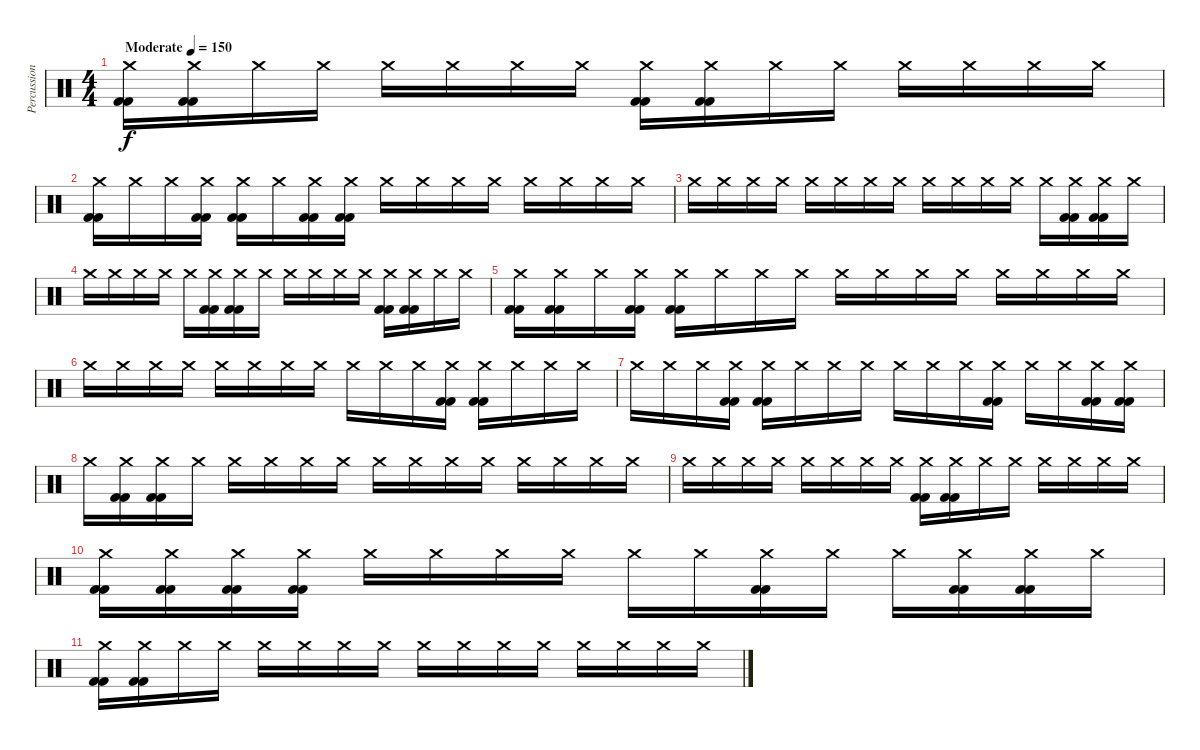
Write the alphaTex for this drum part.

\track ("Percussion" "Percussion") {instrument percussion}
\staff {score}
\articulation defaults
\ts (4 4)
\tempo (150 "Moderate")
\clef neutral
\ks c
("Crash medium (hit)" "Kick (hit) 2" "Kick (hit) 2").16{dy f} ("Crash medium (hit)" "Kick (hit) 2" "Kick (hit) 2").16 "Crash medium (hit)".16 "Crash medium (hit)".16 "Crash medium (hit)".16 "Crash medium (hit)".16 "Crash medium (hit)".16 "Crash medium (hit)".16 ("Crash medium (hit)" "Kick (hit) 2" "Kick (hit) 2").16 ("Crash medium (hit)" "Kick (hit) 2" "Kick (hit) 2").16 "Crash medium (hit)".16 "Crash medium (hit)".16 "Crash medium (hit)".16 "Crash medium (hit)".16 "Crash medium (hit)".16 "Crash medium (hit)".16 |
("Crash medium (hit)" "Kick (hit) 2" "Kick (hit) 2").16 "Crash medium (hit)".16 "Crash medium (hit)".16 ("Crash medium (hit)" "Kick (hit) 2" "Kick (hit) 2").16 ("Crash medium (hit)" "Kick (hit) 2" "Kick (hit) 2").16 "Crash medium (hit)".16 ("Crash medium (hit)" "Kick (hit) 2" "Kick (hit) 2").16 ("Crash medium (hit)" "Kick (hit) 2" "Kick (hit) 2").16 "Crash medium (hit)".16 "Crash medium (hit)".16 "Crash medium (hit)".16 "Crash medium (hit)".16 "Crash medium (hit)".16 "Crash medium (hit)".16 "Crash medium (hit)".16 "Crash medium (hit)".16 |
"Crash medium (hit)".16 "Crash medium (hit)".16 "Crash medium (hit)".16 "Crash medium (hit)".16 "Crash medium (hit)".16 "Crash medium (hit)".16 "Crash medium (hit)".16 "Crash medium (hit)".16 "Crash medium (hit)".16 "Crash medium (hit)".16 "Crash medium (hit)".16 "Crash medium (hit)".16 "Crash medium (hit)".16 ("Crash medium (hit)" "Kick (hit) 2" "Kick (hit) 2").16 ("Crash medium (hit)" "Kick (hit) 2" "Kick (hit) 2").16 "Crash medium (hit)".16 |
"Crash medium (hit)".16 "Crash medium (hit)".16 "Crash medium (hit)".16 "Crash medium (hit)".16 "Crash medium (hit)".16 ("Crash medium (hit)" "Kick (hit) 2" "Kick (hit) 2").16 ("Crash medium (hit)" "Kick (hit) 2" "Kick (hit) 2").16 "Crash medium (hit)".16 "Crash medium (hit)".16 "Crash medium (hit)".16 "Crash medium (hit)".16 "Crash medium (hit)".16 ("Crash medium (hit)" "Kick (hit) 2" "Kick (hit) 2").16 ("Crash medium (hit)" "Kick (hit) 2" "Kick (hit) 2").16 "Crash medium (hit)".16 "Crash medium (hit)".16 |
("Crash medium (hit)" "Kick (hit) 2" "Kick (hit) 2").16 ("Crash medium (hit)" "Kick (hit) 2" "Kick (hit) 2").16 "Crash medium (hit)".16 ("Crash medium (hit)" "Kick (hit) 2" "Kick (hit) 2").16 ("Crash medium (hit)" "Kick (hit) 2" "Kick (hit) 2").16 "Crash medium (hit)".16 "Crash medium (hit)".16 "Crash medium (hit)".16 "Crash medium (hit)".16 "Crash medium (hit)".16 "Crash medium (hit)".16 "Crash medium (hit)".16 "Crash medium (hit)".16 "Crash medium (hit)".16 "Crash medium (hit)".16 "Crash medium (hit)".16 |
"Crash medium (hit)".16 "Crash medium (hit)".16 "Crash medium (hit)".16 "Crash medium (hit)".16 "Crash medium (hit)".16 "Crash medium (hit)".16 "Crash medium (hit)".16 "Crash medium (hit)".16 "Crash medium (hit)".16 "Crash medium (hit)".16 "Crash medium (hit)".16 ("Crash medium (hit)" "Kick (hit) 2" "Kick (hit) 2").16 ("Crash medium (hit)" "Kick (hit) 2" "Kick (hit) 2").16 "Crash medium (hit)".16 "Crash medium (hit)".16 "Crash medium (hit)".16 |
"Crash medium (hit)".16 "Crash medium (hit)".16 "Crash medium (hit)".16 ("Crash medium (hit)" "Kick (hit) 2" "Kick (hit) 2").16 ("Crash medium (hit)" "Kick (hit) 2" "Kick (hit) 2").16 "Crash medium (hit)".16 "Crash medium (hit)".16 "Crash medium (hit)".16 "Crash medium (hit)".16 "Crash medium (hit)".16 "Crash medium (hit)".16 ("Crash medium (hit)" "Kick (hit) 2" "Kick (hit) 2").16 "Crash medium (hit)".16 "Crash medium (hit)".16 ("Crash medium (hit)" "Kick (hit) 2" "Kick (hit) 2").16 ("Crash medium (hit)" "Kick (hit) 2" "Kick (hit) 2").16 |
"Crash medium (hit)".16 ("Crash medium (hit)" "Kick (hit) 2" "Kick (hit) 2").16 ("Crash medium (hit)" "Kick (hit) 2" "Kick (hit) 2").16 "Crash medium (hit)".16 "Crash medium (hit)".16 "Crash medium (hit)".16 "Crash medium (hit)".16 "Crash medium (hit)".16 "Crash medium (hit)".16 "Crash medium (hit)".16 "Crash medium (hit)".16 "Crash medium (hit)".16 "Crash medium (hit)".16 "Crash medium (hit)".16 "Crash medium (hit)".16 "Crash medium (hit)".16 |
"Crash medium (hit)".16 "Crash medium (hit)".16 "Crash medium (hit)".16 "Crash medium (hit)".16 "Crash medium (hit)".16 "Crash medium (hit)".16 "Crash medium (hit)".16 "Crash medium (hit)".16 ("Crash medium (hit)" "Kick (hit) 2" "Kick (hit) 2").16 ("Crash medium (hit)" "Kick (hit) 2" "Kick (hit) 2").16 "Crash medium (hit)".16 "Crash medium (hit)".16 "Crash medium (hit)".16 "Crash medium (hit)".16 "Crash medium (hit)".16 "Crash medium (hit)".16 |
("Crash medium (hit)" "Kick (hit) 2" "Kick (hit) 2").16 ("Crash medium (hit)" "Kick (hit) 2" "Kick (hit) 2").16 ("Crash medium (hit)" "Kick (hit) 2" "Kick (hit) 2").16 ("Crash medium (hit)" "Kick (hit) 2" "Kick (hit) 2").16 "Crash medium (hit)".16 "Crash medium (hit)".16 "Crash medium (hit)".16 "Crash medium (hit)".16 "Crash medium (hit)".16 "Crash medium (hit)".16 ("Crash medium (hit)" "Kick (hit) 2" "Kick (hit) 2").16 "Crash medium (hit)".16 "Crash medium (hit)".16 ("Crash medium (hit)" "Kick (hit) 2" "Kick (hit) 2").16 ("Crash medium (hit)" "Kick (hit) 2" "Kick (hit) 2").16 "Crash medium (hit)".16 |
("Crash medium (hit)" "Kick (hit) 2" "Kick (hit) 2").16 ("Crash medium (hit)" "Kick (hit) 2" "Kick (hit) 2").16 "Crash medium (hit)".16 "Crash medium (hit)".16 "Crash medium (hit)".16 "Crash medium (hit)".16 "Crash medium (hit)".16 "Crash medium (hit)".16 "Crash medium (hit)".16 "Crash medium (hit)".16 "Crash medium (hit)".16 "Crash medium (hit)".16 "Crash medium (hit)".16 "Crash medium (hit)".16 "Crash medium (hit)".16 "Crash medium (hit)".16
